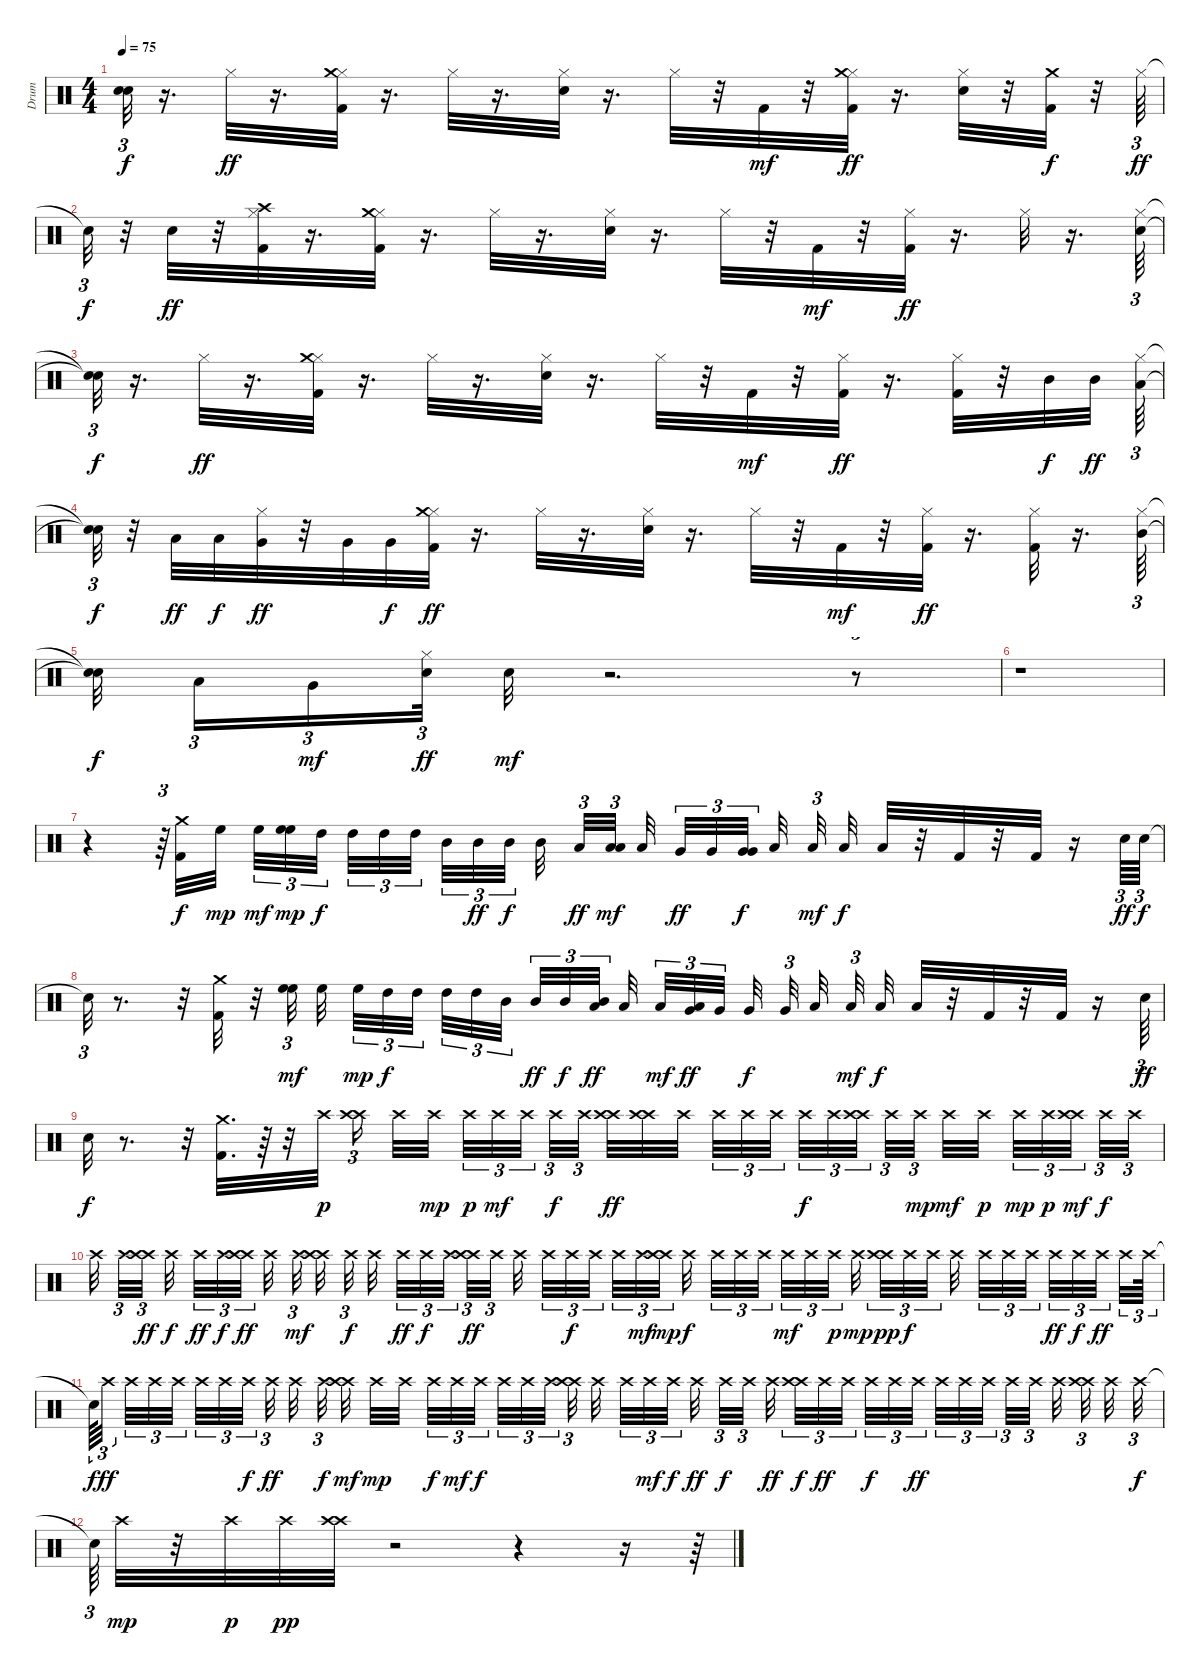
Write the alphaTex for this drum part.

\track ("Drum" "Drum") {instrument percussion}
\staff {score}
\articulation defaults
\ts (4 4)
\tempo 75
\clef neutral
\ks c
("Snare (hit)"{t} "Snare (hit)"{t}).32{tu (3 2) dy f} r.16{d} "Hi-Hat (closed)".32{dy ff} r.16{d} ("Kick (hit) 2" "Hi-Hat (closed)" "Crash medium (hit)").32 r.16{d} "Hi-Hat (closed)".32 r.16{d} ("Hi-Hat (closed)" "Snare (hit) 2").32 r.16{d} "Hi-Hat (closed)".32 r.32 "Kick (hit) 2".32{dy mf} r.32 ("Kick (hit) 2" "Hi-Hat (closed)" "Crash medium (hit)").32{dy ff} r.16{d} ("Hi-Hat (closed)" "Snare (hit) 2").32 r.32 ("Kick (hit) 2" "Crash medium (hit)").32{dy f} r.32 "Hi-Hat (closed)".64{tu (3 2) dy ff} |
"Snare (hit)"{t}.32{tu (3 2) dy f} r.32 "Snare (hit) 2".32{dy ff} r.32 ("Kick (hit) 2" "Hi-Hat (closed)" "Crash high (hit)").32 r.16{d} ("Kick (hit) 2" "Hi-Hat (closed)" "Crash medium (hit)").32 r.16{d} "Hi-Hat (closed)".32 r.16{d} ("Hi-Hat (closed)" "Snare (hit) 2").32 r.16{d} "Hi-Hat (closed)".32 r.32 "Kick (hit) 2".32{dy mf} r.32 ("Kick (hit) 2" "Hi-Hat (closed)").32{dy ff} r.16{d} "Hi-Hat (closed)".32 r.16{d} ("Hi-Hat (closed)" "Snare (hit) 2").64{tu (3 2)} |
("Snare (hit)"{t} "Snare (hit)"{t}).32{tu (3 2) dy f} r.16{d} "Hi-Hat (closed)".32{dy ff} r.16{d} ("Kick (hit) 2" "Hi-Hat (closed)" "Crash medium (hit)").32 r.16{d} "Hi-Hat (closed)".32 r.16{d} ("Hi-Hat (closed)" "Snare (hit) 2").32 r.16{d} "Hi-Hat (closed)".32 r.32 "Kick (hit) 2".32{dy mf} r.32 ("Kick (hit) 2" "Hi-Hat (closed)").32{dy ff} r.16{d} ("Kick (hit) 2" "Hi-Hat (closed)").32 r.32 "Mid Tom (hit)".32{dy f} "Mid Tom (hit)".32{dy ff beam splitsecondary} ("Hi-Hat (closed)" "Low Tom (hit)").64{tu (3 2)} |
("Snare (hit)"{t} "Snare (hit)"{t}).32{tu (3 2) dy f} r.32 "Low Tom (hit)".32{dy ff} "Low Tom (hit)".32{dy f} ("Hi-Hat (closed)" "Very Low Tom (hit)").32{dy ff} r.32 "Very Low Tom (hit)".32 "Very Low Tom (hit)".32{dy f} ("Kick (hit) 2" "Hi-Hat (closed)" "Crash medium (hit)").32{dy ff} r.16{d} "Hi-Hat (closed)".32 r.16{d} ("Hi-Hat (closed)" "Snare (hit) 2").32 r.16{d} "Hi-Hat (closed)".32 r.32 "Kick (hit) 2".32{dy mf} r.32 ("Kick (hit) 2" "Hi-Hat (closed)").32{dy ff} r.16{d} ("Kick (hit) 2" "Hi-Hat (closed)").32 r.16{d} ("Hi-Hat (closed)" "Mid Tom (hit)").64{tu (3 2)} |
("Snare (hit)"{t} "Snare (hit)"{t}).32{dy f beam splitsecondary} "Low Tom (hit)".16{tu (3 2)} "Very Low Tom (hit)".16{tu (3 2) dy mf} ("Hi-Hat (closed)" "Snare (hit) 2").32{tu (3 2) dy ff} "Snare (hit) 2".32{dy mf} r.2{d} r.8{tu (3 2)} |
r.1 |
r.4 r.64{tu (3 2)} ("Kick (hit) 2" "Crash medium (hit)").32{dy f} "High Floor Tom (hit)".32{dy mp beam splitsecondary} "High Floor Tom (hit)".32{tu (3 2) dy mf} ("High Floor Tom (hit)" "High Floor Tom (hit)").32{tu (3 2) dy mp} "High Tom (hit)".32{tu (3 2) dy f beam splitsecondary} "High Tom (hit)".32{tu (3 2)} "High Tom (hit)".32{tu (3 2)} "High Tom (hit)".32{tu (3 2) beam splitsecondary} "Mid Tom (hit)".32{tu (3 2)} "Mid Tom (hit)".32{tu (3 2) dy ff} "Mid Tom (hit)".32{tu (3 2) dy f} "Mid Tom (hit)".32{beam splitsecondary} "Low Tom (hit)".32{tu (3 2) dy ff} ("Low Tom (hit)" "Low Tom (hit)").32{tu (3 2) dy mf beam splitsecondary} "Low Tom (hit)".32{beam splitsecondary} "Very Low Tom (hit)".32{tu (3 2) dy ff} "Very Low Tom (hit)".32{tu (3 2)} ("Very Low Tom (hit)" "Very Low Tom (hit)").32{tu (3 2) dy f beam splitsecondary} "Low Floor Tom (hit)".32{beam splitsecondary} "Low Floor Tom (hit)".32{tu (3 2) dy mf} "Low Floor Tom (hit)".32{dy f} "Low Floor Tom (hit)".32 r.32 "Kick (hit) 2".32 r.32 "Kick (hit) 2".32 r.16 "Snare (hit) 2".64{tu (3 2) dy ff} "Snare (hit) 2".64{tu (3 2) dy f} |
"Snare (hit)"{t}.32{tu (3 2)} r.8{d} r.32 ("Kick (hit) 2" "Crash medium (hit)").32 r.32 ("High Floor Tom (hit)" "High Floor Tom (hit)").32{tu (3 2) dy mf beam splitsecondary} "High Floor Tom (hit)".32{beam splitsecondary} "High Floor Tom (hit)".32{tu (3 2) dy mp} "High Tom (hit)".32{tu (3 2) dy f} "High Tom (hit)".32{tu (3 2) beam splitsecondary} "High Tom (hit)".32{tu (3 2)} "High Tom (hit)".32{tu (3 2)} "Mid Tom (hit)".32{tu (3 2) beam splitsecondary} "Mid Tom (hit)".32{tu (3 2) dy ff} "Mid Tom (hit)".32{tu (3 2) dy f} ("Mid Tom (hit)" "Low Tom (hit)").32{tu (3 2) dy ff beam splitsecondary} "Low Tom (hit)".32{beam splitsecondary} "Low Tom (hit)".32{tu (3 2) dy mf} ("Low Tom (hit)" "Very Low Tom (hit)").32{tu (3 2) dy ff} "Very Low Tom (hit)".32{tu (3 2) beam splitsecondary} "Very Low Tom (hit)".32{dy f beam splitsecondary} "Very Low Tom (hit)".32{tu (3 2) beam splitsecondary} "Low Floor Tom (hit)".32{beam splitsecondary} "Low Floor Tom (hit)".32{tu (3 2) dy mf} "Low Floor Tom (hit)".32{dy f} "Low Floor Tom (hit)".32 r.32 "Kick (hit) 2".32 r.32 "Kick (hit) 2".32 r.16 "Snare (hit) 2".64{tu (3 2) dy ff} |
"Snare (hit) 2".32{dy f} r.8{d} r.32 ("Kick (hit) 2" "Crash medium (hit)").32{d} r.64 r.32 "Crash high (hit)".32{dy p beam splitsecondary} ("Crash high (hit)" "Crash high (hit)").16{tu (3 2) beam splitsecondary} "Crash high (hit)".32 "Crash high (hit)".32{dy mp beam splitsecondary} "Crash high (hit)".32{tu (3 2) dy p} "Crash high (hit)".32{tu (3 2) dy mf} "Crash high (hit)".32{tu (3 2) beam splitsecondary} "Crash high (hit)".32{tu (3 2) dy f} "Crash high (hit)".32{tu (3 2) beam splitsecondary} ("Crash high (hit)" "Crash high (hit)").32{dy ff} ("Crash high (hit)" "Crash high (hit)").32 "Crash high (hit)".32{beam splitsecondary} "Crash high (hit)".32{tu (3 2)} "Crash high (hit)".32{tu (3 2)} "Crash high (hit)".32{tu (3 2) beam splitsecondary} "Crash high (hit)".32{tu (3 2) dy f} "Crash high (hit)".32{tu (3 2)} ("Crash high (hit)" "Crash high (hit)").32{tu (3 2) beam splitsecondary} "Crash high (hit)".32{tu (3 2)} "Crash high (hit)".32{tu (3 2) dy mp beam splitsecondary} "Crash high (hit)".32{dy mf} "Crash high (hit)".32{dy p beam splitsecondary} "Crash high (hit)".32{tu (3 2) dy mp} "Crash high (hit)".32{tu (3 2) dy p} ("Crash high (hit)" "Crash high (hit)").32{tu (3 2) dy mf beam splitsecondary} "Crash high (hit)".32{tu (3 2) dy f} "Crash high (hit)".32{tu (3 2)} |
"Crash high (hit)".32{beam splitsecondary} "Crash high (hit)".32{tu (3 2)} ("Crash high (hit)" "Crash high (hit)").32{tu (3 2) dy ff beam splitsecondary} "Crash high (hit)".32{dy f beam splitsecondary} "Crash high (hit)".32{tu (3 2) dy ff} "Crash high (hit)".32{tu (3 2) dy f} ("Crash high (hit)" "Crash high (hit)").32{tu (3 2) dy ff beam splitsecondary} "Crash high (hit)".32{beam splitsecondary} "Crash high (hit)".32{tu (3 2) dy mf} ("Crash high (hit)" "Crash high (hit)").32 "Crash high (hit)".32{tu (3 2) dy f beam splitsecondary} "Crash high (hit)".32{beam splitsecondary} "Crash high (hit)".32{tu (3 2) dy ff} "Crash high (hit)".32{tu (3 2) dy f} "Crash high (hit)".32{tu (3 2) beam splitsecondary} ("Crash high (hit)" "Crash high (hit)").32{tu (3 2) dy ff} "Crash high (hit)".32{tu (3 2) beam splitsecondary} "Crash high (hit)".32{beam splitsecondary} "Crash high (hit)".32{tu (3 2)} "Crash high (hit)".32{tu (3 2) dy f} "Crash high (hit)".32{tu (3 2)} "Crash high (hit)".32{tu (3 2)} "Crash high (hit)".32{tu (3 2) dy mf} ("Crash high (hit)" "Crash high (hit)").32{tu (3 2) dy mp beam splitsecondary} "Crash high (hit)".32{dy f beam splitsecondary} "Crash high (hit)".32{tu (3 2)} "Crash high (hit)".32{tu (3 2)} "Crash high (hit)".32{tu (3 2) beam splitsecondary} "Crash high (hit)".32{tu (3 2) dy mf} "Crash high (hit)".32{tu (3 2)} "Crash high (hit)".32{tu (3 2) dy p beam splitsecondary} "Crash high (hit)".32{dy mp} ("Crash high (hit)" "Crash high (hit)").32{tu (3 2) dy pp} "Crash high (hit)".32{tu (3 2) dy f} "Crash high (hit)".32{tu (3 2) beam splitsecondary} "Crash high (hit)".32{beam splitsecondary} "Crash high (hit)".32{tu (3 2)} "Crash high (hit)".32{tu (3 2)} "Crash high (hit)".32{tu (3 2) beam splitsecondary} "Crash high (hit)".32{tu (3 2) dy ff} "Crash high (hit)".32{tu (3 2) dy f} "Crash high (hit)".32{tu (3 2) dy ff beam splitsecondary} "Crash high (hit)".32{tu (3 2)} "Crash high (hit)".64{tu (3 2)} |
"Snare (hit)"{t}.64{tu (3 2) dy f} "Crash high (hit)".32{tu (3 2) dy ff beam splitsecondary} "Crash high (hit)".32{tu (3 2)} "Crash high (hit)".32{tu (3 2)} "Crash high (hit)".32{tu (3 2) beam splitsecondary} "Crash high (hit)".32{tu (3 2)} "Crash high (hit)".32{tu (3 2)} "Crash high (hit)".32{tu (3 2) dy f beam splitsecondary} "Crash high (hit)".32{tu (3 2) dy ff beam splitsecondary} "Crash high (hit)".32{beam splitsecondary} "Crash high (hit)".32{tu (3 2) dy f} ("Crash high (hit)" "Crash high (hit)").32{dy mf} "Crash high (hit)".32{dy mp} "Crash high (hit)".32{beam splitsecondary} "Crash high (hit)".32{tu (3 2) dy f} "Crash high (hit)".32{tu (3 2) dy mf} "Crash high (hit)".32{tu (3 2) dy f beam splitsecondary} "Crash high (hit)".32{tu (3 2)} "Crash high (hit)".32{tu (3 2)} "Crash high (hit)".32{tu (3 2) beam splitsecondary} ("Crash high (hit)" "Crash high (hit)").32{tu (3 2)} "Crash high (hit)".32 "Crash high (hit)".32{tu (3 2)} "Crash high (hit)".32{tu (3 2) dy mf} "Crash high (hit)".32{tu (3 2) dy f beam splitsecondary} "Crash high (hit)".32{dy ff beam splitsecondary} "Crash high (hit)".32{tu (3 2) dy f} "Crash high (hit)".32{tu (3 2) beam splitsecondary} "Crash high (hit)".32{dy ff beam splitsecondary} ("Crash high (hit)" "Crash high (hit)").32{tu (3 2) dy f} "Crash high (hit)".32{tu (3 2) dy ff} "Crash high (hit)".32{tu (3 2) beam splitsecondary} "Crash high (hit)".32{tu (3 2) dy f} "Crash high (hit)".32{tu (3 2)} "Crash high (hit)".32{tu (3 2) dy ff beam splitsecondary} "Crash high (hit)".32{tu (3 2)} "Crash high (hit)".32{tu (3 2)} "Crash high (hit)".32{tu (3 2) beam splitsecondary} "Crash high (hit)".32{tu (3 2)} "Crash high (hit)".32{tu (3 2) beam splitsecondary} "Crash high (hit)".32{beam splitsecondary} ("Crash high (hit)" "Crash high (hit)").32{tu (3 2) beam splitsecondary} "Crash high (hit)".32 "Crash high (hit)".32{tu (3 2) dy f} |
"Snare (hit)"{t}.64{tu (3 2)} "Crash high (hit)".32{dy mp} r.32 "Crash high (hit)".32{dy p} "Crash high (hit)".32{dy pp} ("Crash high (hit)" "Crash high (hit)").32 r.2 r.4 r.16 r.64
